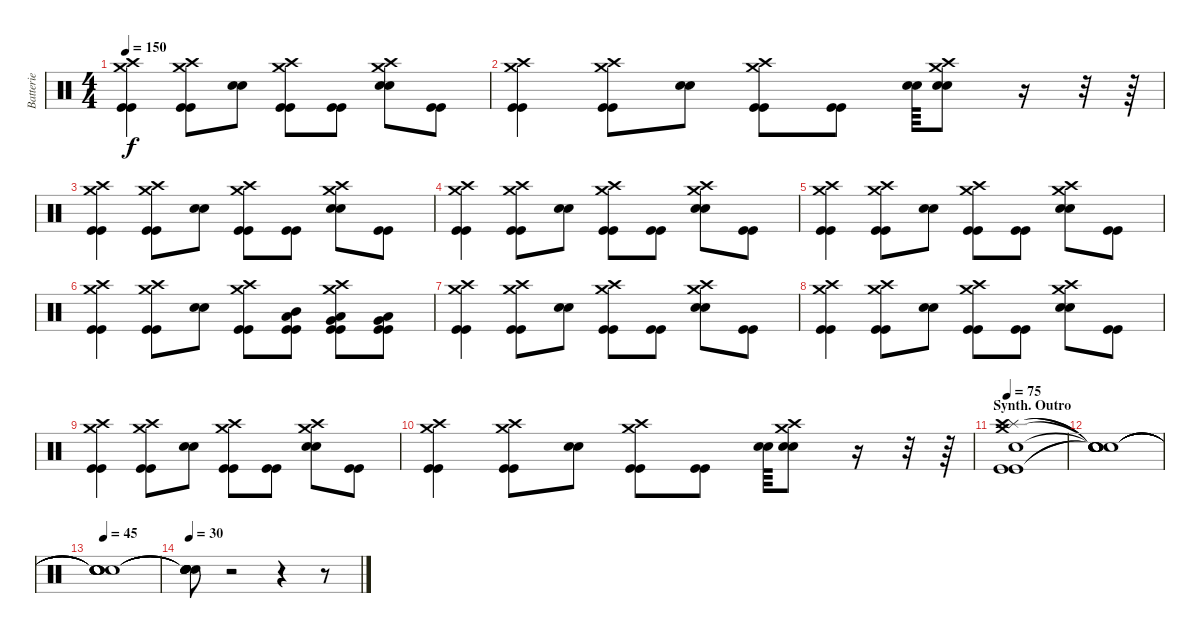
\track ("Batterie" "Batterie") {instrument percussion}
\staff {score}
\articulation defaults
\ts (4 4)
\tempo 150
\clef neutral
\ks c
("Crash high (hit)" "Crash medium (hit)" "Kick (hit)" "Kick (hit)").4{dy f} ("Crash high (hit)" "Crash medium (hit)" "Kick (hit)" "Kick (hit)").8 ("Electric Snare (hit)" "Electric Snare (hit)").8 ("Crash high (hit)" "Crash medium (hit)" "Kick (hit)" "Kick (hit)").8 ("Kick (hit)" "Kick (hit)").8 ("Crash high (hit)" "Crash medium (hit)" "Electric Snare (hit)" "Electric Snare (hit)").8 ("Kick (hit)" "Kick (hit)").8 |
("Crash high (hit)" "Crash medium (hit)" "Kick (hit)" "Kick (hit)").4 ("Crash high (hit)" "Crash medium (hit)" "Kick (hit)" "Kick (hit)").8 ("Electric Snare (hit)" "Electric Snare (hit)").8 ("Crash high (hit)" "Crash medium (hit)" "Kick (hit)" "Kick (hit)").8 ("Kick (hit)" "Kick (hit)").8 ("Electric Snare (hit)" "Electric Snare (hit)").64 ("Crash high (hit)" "Crash medium (hit)" "Electric Snare (hit)" "Electric Snare (hit)").8 r.16 r.32 r.64 |
("Crash high (hit)" "Crash medium (hit)" "Kick (hit)" "Kick (hit)").4 ("Crash high (hit)" "Crash medium (hit)" "Kick (hit)" "Kick (hit)").8 ("Electric Snare (hit)" "Electric Snare (hit)").8 ("Crash high (hit)" "Crash medium (hit)" "Kick (hit)" "Kick (hit)").8 ("Kick (hit)" "Kick (hit)").8 ("Crash high (hit)" "Crash medium (hit)" "Electric Snare (hit)" "Electric Snare (hit)").8 ("Kick (hit)" "Kick (hit)").8 |
("Crash high (hit)" "Crash medium (hit)" "Kick (hit)" "Kick (hit)").4 ("Crash high (hit)" "Crash medium (hit)" "Kick (hit)" "Kick (hit)").8 ("Electric Snare (hit)" "Electric Snare (hit)").8 ("Crash high (hit)" "Crash medium (hit)" "Kick (hit)" "Kick (hit)").8 ("Kick (hit)" "Kick (hit)").8 ("Crash high (hit)" "Crash medium (hit)" "Electric Snare (hit)" "Electric Snare (hit)").8 ("Kick (hit)" "Kick (hit)").8 |
("Crash high (hit)" "Crash medium (hit)" "Kick (hit)" "Kick (hit)").4 ("Crash high (hit)" "Crash medium (hit)" "Kick (hit)" "Kick (hit)").8 ("Electric Snare (hit)" "Electric Snare (hit)").8 ("Crash high (hit)" "Crash medium (hit)" "Kick (hit)" "Kick (hit)").8 ("Kick (hit)" "Kick (hit)").8 ("Crash high (hit)" "Crash medium (hit)" "Electric Snare (hit)" "Electric Snare (hit)").8 ("Kick (hit)" "Kick (hit)").8 |
("Crash high (hit)" "Crash medium (hit)" "Kick (hit)" "Kick (hit)").4 ("Crash high (hit)" "Crash medium (hit)" "Kick (hit)" "Kick (hit)").8 ("Electric Snare (hit)" "Electric Snare (hit)").8 ("Crash high (hit)" "Crash medium (hit)" "Kick (hit)" "Kick (hit)").8 ("Mid Tom (hit)" "Low Floor Tom (hit)" "Kick (hit)" "Kick (hit)").8 ("Crash high (hit)" "Crash medium (hit)" "Very Low Tom (hit)" "Low Floor Tom (hit)" "Kick (hit)" "Kick (hit)").8 ("Very Low Tom (hit)" "Low Floor Tom (hit)" "Kick (hit)" "Kick (hit)").8 |
("Crash high (hit)" "Crash medium (hit)" "Kick (hit)" "Kick (hit)").4 ("Crash high (hit)" "Crash medium (hit)" "Kick (hit)" "Kick (hit)").8 ("Electric Snare (hit)" "Electric Snare (hit)").8 ("Crash high (hit)" "Crash medium (hit)" "Kick (hit)" "Kick (hit)").8 ("Kick (hit)" "Kick (hit)").8 ("Crash high (hit)" "Crash medium (hit)" "Electric Snare (hit)" "Electric Snare (hit)").8 ("Kick (hit)" "Kick (hit)").8 |
("Crash high (hit)" "Crash medium (hit)" "Kick (hit)" "Kick (hit)").4 ("Crash high (hit)" "Crash medium (hit)" "Kick (hit)" "Kick (hit)").8 ("Electric Snare (hit)" "Electric Snare (hit)").8 ("Crash high (hit)" "Crash medium (hit)" "Kick (hit)" "Kick (hit)").8 ("Kick (hit)" "Kick (hit)").8 ("Crash high (hit)" "Crash medium (hit)" "Electric Snare (hit)" "Electric Snare (hit)").8 ("Kick (hit)" "Kick (hit)").8 |
("Crash high (hit)" "Crash medium (hit)" "Kick (hit)" "Kick (hit)").4 ("Crash high (hit)" "Crash medium (hit)" "Kick (hit)" "Kick (hit)").8 ("Electric Snare (hit)" "Electric Snare (hit)").8 ("Crash high (hit)" "Crash medium (hit)" "Kick (hit)" "Kick (hit)").8 ("Kick (hit)" "Kick (hit)").8 ("Crash high (hit)" "Crash medium (hit)" "Electric Snare (hit)" "Electric Snare (hit)").8 ("Kick (hit)" "Kick (hit)").8 |
("Crash high (hit)" "Crash medium (hit)" "Kick (hit)" "Kick (hit)").4 ("Crash high (hit)" "Crash medium (hit)" "Kick (hit)" "Kick (hit)").8 ("Electric Snare (hit)" "Electric Snare (hit)").8 ("Crash high (hit)" "Crash medium (hit)" "Kick (hit)" "Kick (hit)").8 ("Kick (hit)" "Kick (hit)").8 ("Electric Snare (hit)" "Electric Snare (hit)").64 ("Crash high (hit)" "Crash medium (hit)" "Electric Snare (hit)" "Electric Snare (hit)").8 r.16 r.32 r.64 |
\section ("" "Synth. Outro")
\tempo 75
("Splash (hit)" "Crash medium (hit)" "Crash high (hit)" "Electric Snare (hit)" "Kick (hit)" "Kick (hit)").1 |
("Snare (hit)"{t} "Snare (hit)"{t} "Snare (hit)"{t} "Snare (hit)"{t} "Snare (hit)"{t} "Snare (hit)"{t}).1 |
\tempo 45
("Snare (hit)"{t} "Snare (hit)"{t} "Snare (hit)"{t} "Snare (hit)"{t} "Snare (hit)"{t} "Snare (hit)"{t}).1 |
\tempo 30
("Snare (hit)"{t} "Snare (hit)"{t} "Snare (hit)"{t} "Snare (hit)"{t} "Snare (hit)"{t} "Snare (hit)"{t}).8 r.2 r.4 r.8
